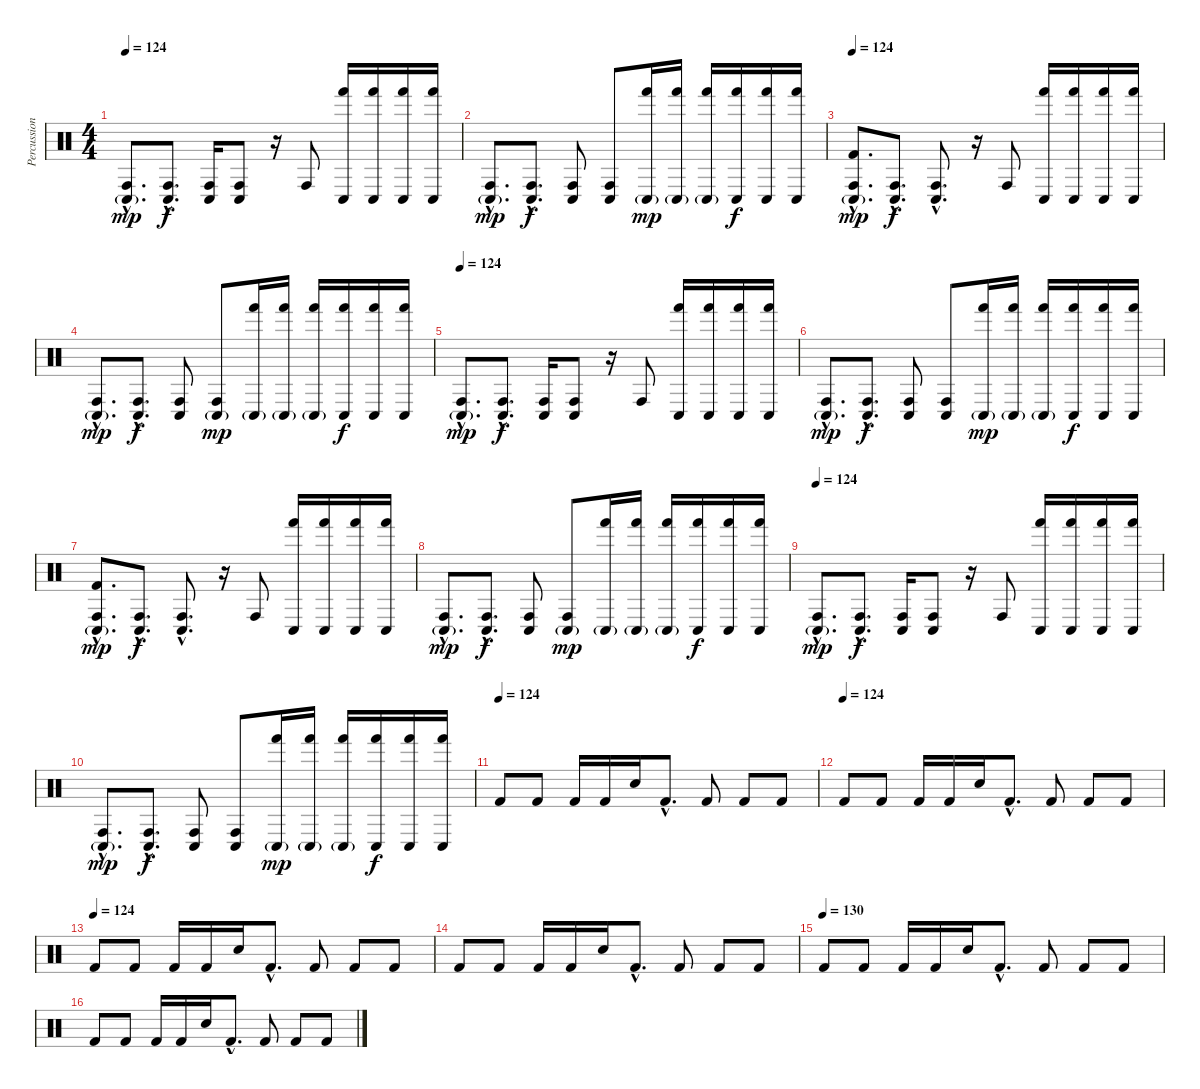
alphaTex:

\track ("Percussion" "Percussion") {instrument percussion}
\staff {score}
\articulation defaults
\ts (4 4)
\tempo 124
\clef neutral
\ks c
("Conga low (hit)"{g hac} "Conga high (hit)"{hac}).8{d dy mp} ("Conga low (hit)"{hac} "Conga high (hit)"{hac}).8{d dy f} ("Conga low (hit)" "Conga high (hit)").16 ("Conga low (hit)" "Conga high (hit)").8 r.16 "Conga high (hit)".8 ("Conga low (hit)" "Hand (hit)").16 ("Conga low (hit)" "Hand (hit)").16 ("Conga low (hit)" "Hand (hit)").16 ("Conga low (hit)" "Hand (hit)").16 |
("Conga low (hit)"{g hac} "Conga high (hit)"{hac}).8{d dy mp} ("Conga low (hit)"{hac} "Conga high (hit)"{hac}).8{d dy f} ("Conga low (hit)" "Conga high (hit)").8 ("Conga low (hit)" "Conga high (hit)").8 ("Conga low (hit)"{g} "Hand (hit)").16{dy mp} ("Conga low (hit)"{g} "Hand (hit)").16 ("Conga low (hit)"{g} "Hand (hit)").16 ("Conga low (hit)" "Hand (hit)").16{dy f} ("Conga low (hit)" "Hand (hit)").16 ("Conga low (hit)" "Hand (hit)").16 |
\tempo 124
("Conga low (hit)"{g hac} "Conga high (hit)"{hac} "Kick (hit) 2"{hac}).8{d dy mp} ("Conga low (hit)"{hac} "Conga high (hit)"{hac}).8{d dy f} ("Conga low (hit)"{hac} "Conga high (hit)"{hac}).8{d} r.16 "Conga high (hit)".8 ("Conga low (hit)" "Hand (hit)").16 ("Conga low (hit)" "Hand (hit)").16 ("Conga low (hit)" "Hand (hit)").16 ("Conga low (hit)" "Hand (hit)").16 |
("Conga low (hit)"{g hac} "Conga high (hit)"{hac}).8{d dy mp} ("Conga low (hit)"{hac} "Conga high (hit)"{hac}).8{d dy f} ("Conga low (hit)" "Conga high (hit)").8 ("Conga low (hit)"{g} "Conga high (hit)").8{dy mp} ("Conga low (hit)"{g} "Hand (hit)").16 ("Conga low (hit)"{g} "Hand (hit)").16 ("Conga low (hit)"{g} "Hand (hit)").16 ("Conga low (hit)" "Hand (hit)").16{dy f} ("Conga low (hit)" "Hand (hit)").16 ("Conga low (hit)" "Hand (hit)").16 |
\tempo 124
("Conga low (hit)"{g hac} "Conga high (hit)"{hac}).8{d dy mp} ("Conga low (hit)"{hac} "Conga high (hit)"{hac}).8{d dy f} ("Conga low (hit)" "Conga high (hit)").16 ("Conga low (hit)" "Conga high (hit)").8 r.16 "Conga high (hit)".8 ("Conga low (hit)" "Hand (hit)").16 ("Conga low (hit)" "Hand (hit)").16 ("Conga low (hit)" "Hand (hit)").16 ("Conga low (hit)" "Hand (hit)").16 |
("Conga low (hit)"{g hac} "Conga high (hit)"{hac}).8{d dy mp} ("Conga low (hit)"{hac} "Conga high (hit)"{hac}).8{d dy f} ("Conga low (hit)" "Conga high (hit)").8 ("Conga low (hit)" "Conga high (hit)").8 ("Conga low (hit)"{g} "Hand (hit)").16{dy mp} ("Conga low (hit)"{g} "Hand (hit)").16 ("Conga low (hit)"{g} "Hand (hit)").16 ("Conga low (hit)" "Hand (hit)").16{dy f} ("Conga low (hit)" "Hand (hit)").16 ("Conga low (hit)" "Hand (hit)").16 |
("Conga low (hit)"{g hac} "Conga high (hit)"{hac} "Kick (hit) 2"{hac}).8{d dy mp} ("Conga low (hit)"{hac} "Conga high (hit)"{hac}).8{d dy f} ("Conga low (hit)"{hac} "Conga high (hit)"{hac}).8{d} r.16 "Conga high (hit)".8 ("Conga low (hit)" "Hand (hit)").16 ("Conga low (hit)" "Hand (hit)").16 ("Conga low (hit)" "Hand (hit)").16 ("Conga low (hit)" "Hand (hit)").16 |
("Conga low (hit)"{g hac} "Conga high (hit)"{hac}).8{d dy mp} ("Conga low (hit)"{hac} "Conga high (hit)"{hac}).8{d dy f} ("Conga low (hit)" "Conga high (hit)").8 ("Conga low (hit)"{g} "Conga high (hit)").8{dy mp} ("Conga low (hit)"{g} "Hand (hit)").16 ("Conga low (hit)"{g} "Hand (hit)").16 ("Conga low (hit)"{g} "Hand (hit)").16 ("Conga low (hit)" "Hand (hit)").16{dy f} ("Conga low (hit)" "Hand (hit)").16 ("Conga low (hit)" "Hand (hit)").16 |
\tempo 124
("Conga low (hit)"{g hac} "Conga high (hit)"{hac}).8{d dy mp} ("Conga low (hit)"{hac} "Conga high (hit)"{hac}).8{d dy f} ("Conga low (hit)" "Conga high (hit)").16 ("Conga low (hit)" "Conga high (hit)").8 r.16 "Conga high (hit)".8 ("Conga low (hit)" "Hand (hit)").16 ("Conga low (hit)" "Hand (hit)").16 ("Conga low (hit)" "Hand (hit)").16 ("Conga low (hit)" "Hand (hit)").16 |
("Conga low (hit)"{g hac} "Conga high (hit)"{hac}).8{d dy mp} ("Conga low (hit)"{hac} "Conga high (hit)"{hac}).8{d dy f} ("Conga low (hit)" "Conga high (hit)").8 ("Conga low (hit)" "Conga high (hit)").8 ("Conga low (hit)"{g} "Hand (hit)").16{dy mp} ("Conga low (hit)"{g} "Hand (hit)").16 ("Conga low (hit)"{g} "Hand (hit)").16 ("Conga low (hit)" "Hand (hit)").16{dy f} ("Conga low (hit)" "Hand (hit)").16 ("Conga low (hit)" "Hand (hit)").16 |
\tempo (124)
"Kick (hit) 2".8 "Kick (hit) 2".8 "Kick (hit) 2".16 "Kick (hit) 2".16 "Electric Snare (hit)".16 "Kick (hit) 2"{hac}.8{d} "Kick (hit) 2".8 "Kick (hit) 2".8 "Kick (hit) 2".8 |
\tempo (124)
"Kick (hit) 2".8 "Kick (hit) 2".8 "Kick (hit) 2".16 "Kick (hit) 2".16 "Electric Snare (hit)".16 "Kick (hit) 2"{hac}.8{d} "Kick (hit) 2".8 "Kick (hit) 2".8 "Kick (hit) 2".8 |
\tempo (124)
"Kick (hit) 2".8 "Kick (hit) 2".8 "Kick (hit) 2".16 "Kick (hit) 2".16 "Electric Snare (hit)".16 "Kick (hit) 2"{hac}.8{d} "Kick (hit) 2".8 "Kick (hit) 2".8 "Kick (hit) 2".8 |
"Kick (hit) 2".8 "Kick (hit) 2".8 "Kick (hit) 2".16 "Kick (hit) 2".16 "Electric Snare (hit)".16 "Kick (hit) 2"{hac}.8{d} "Kick (hit) 2".8 "Kick (hit) 2".8 "Kick (hit) 2".8 |
\tempo (130)
"Kick (hit) 2".8 "Kick (hit) 2".8 "Kick (hit) 2".16 "Kick (hit) 2".16 "Electric Snare (hit)".16 "Kick (hit) 2"{hac}.8{d} "Kick (hit) 2".8 "Kick (hit) 2".8 "Kick (hit) 2".8 |
"Kick (hit) 2".8 "Kick (hit) 2".8 "Kick (hit) 2".16 "Kick (hit) 2".16 "Electric Snare (hit)".16 "Kick (hit) 2"{hac}.8{d} "Kick (hit) 2".8 "Kick (hit) 2".8 "Kick (hit) 2".8
